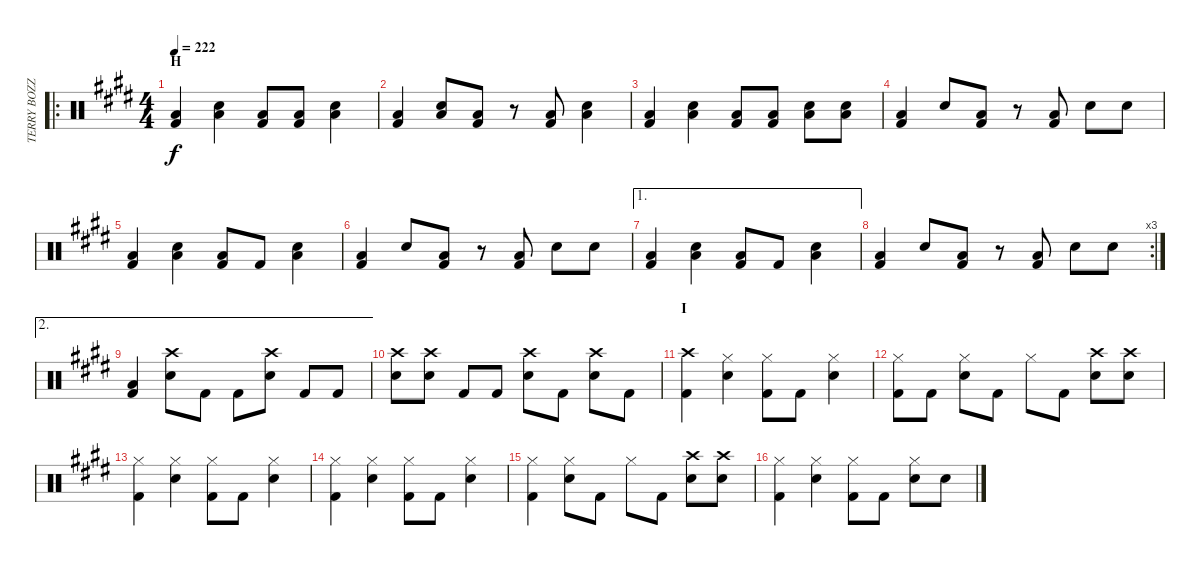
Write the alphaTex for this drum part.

\track ("TERRY BOZZIO" "TERRY BOZZ") {instrument percussion}
\staff {score}
\articulation defaults
\ro
\ts (4 4)
\section ("" "H")
\tempo 222
\clef neutral
\ks c#minor
("Kick (hit) 2" "Low Tom (hit)").4{dy f} ("Snare (hit) 2" "Low Tom (hit)").4 ("Kick (hit) 2" "Low Tom (hit)").8 ("Kick (hit) 2" "Low Tom (hit)").8 ("Snare (hit) 2" "Low Tom (hit)").4 |
("Kick (hit) 2" "Low Tom (hit)").4 ("Snare (hit) 2" "Low Tom (hit)").8 ("Kick (hit) 2" "Low Tom (hit)").8 r.8 ("Kick (hit) 2" "Low Tom (hit)").8 ("Snare (hit) 2" "Low Tom (hit)").4 |
("Kick (hit) 2" "Low Tom (hit)").4 ("Snare (hit) 2" "Low Tom (hit)").4 ("Kick (hit) 2" "Low Tom (hit)").8 ("Kick (hit) 2" "Low Tom (hit)").8 ("Snare (hit) 2" "Low Tom (hit)").8 ("Snare (hit) 2" "Low Tom (hit)").8 |
("Low Tom (hit)" "Kick (hit) 2").4 "Snare (hit) 2".8 ("Low Tom (hit)" "Kick (hit) 2").8 r.8 ("Low Tom (hit)" "Kick (hit) 2").8 "Snare (hit) 2".8 "Snare (hit) 2".8 |
("Low Tom (hit)" "Kick (hit) 2").4 ("Low Tom (hit)" "Snare (hit) 2").4 ("Low Tom (hit)" "Kick (hit) 2").8 "Kick (hit) 2".8 ("Low Tom (hit)" "Snare (hit) 2").4 |
("Kick (hit) 2" "Low Tom (hit)").4 "Snare (hit) 2".8 ("Low Tom (hit)" "Kick (hit) 2").8 r.8 ("Kick (hit) 2" "Low Tom (hit)").8 "Snare (hit) 2".8 "Snare (hit) 2".8 |
\ae 1
("Low Tom (hit)" "Kick (hit) 2").4 ("Low Tom (hit)" "Snare (hit) 2").4 ("Low Tom (hit)" "Kick (hit) 2").8 "Kick (hit) 2".8 ("Low Tom (hit)" "Snare (hit) 2").4 |
\rc 3
("Kick (hit) 2" "Low Tom (hit)").4 "Snare (hit) 2".8 ("Low Tom (hit)" "Kick (hit) 2").8 r.8 ("Kick (hit) 2" "Low Tom (hit)").8 "Snare (hit) 2".8 "Snare (hit) 2".8 |
\ae 2
("Low Tom (hit)" "Kick (hit) 2").4 ("Crash high (hit)" "Snare (hit) 2").8 "Kick (hit) 2".8 "Kick (hit) 2".8 ("Snare (hit) 2" "Crash high (hit)").8 "Kick (hit) 2".8 "Kick (hit) 2".8 |
("Crash high (hit)" "Snare (hit) 2").8 ("Crash high (hit)" "Snare (hit) 2").8 "Kick (hit) 2".8 "Kick (hit) 2".8 ("Crash high (hit)" "Snare (hit) 2").8 "Kick (hit) 2".8 ("Crash high (hit)" "Snare (hit) 2").8 "Kick (hit) 2".8 |
\section ("" "I")
("Crash high (hit)" "Kick (hit) 2").4 ("Hi-Hat (closed)" "Snare (hit) 2").4 ("Hi-Hat (closed)" "Kick (hit) 2").8 "Kick (hit) 2".8 ("Hi-Hat (closed)" "Snare (hit) 2").4 |
("Hi-Hat (closed)" "Kick (hit) 2").8 "Kick (hit) 2".8 ("Hi-Hat (closed)" "Snare (hit) 2").8 "Kick (hit) 2".8 "Hi-Hat (closed)".8 "Kick (hit) 2".8 ("Crash high (hit)" "Snare (hit) 2").8 ("Crash high (hit)" "Snare (hit) 2").8 |
("Hi-Hat (closed)" "Kick (hit) 2").4 ("Hi-Hat (closed)" "Snare (hit) 2").4 ("Hi-Hat (closed)" "Kick (hit) 2").8 "Kick (hit) 2".8 ("Hi-Hat (closed)" "Snare (hit) 2").4 |
("Hi-Hat (closed)" "Kick (hit) 2").4 ("Hi-Hat (closed)" "Snare (hit) 2").4 ("Hi-Hat (closed)" "Kick (hit) 2").8 "Kick (hit) 2".8 ("Hi-Hat (closed)" "Snare (hit) 2").4 |
("Hi-Hat (closed)" "Kick (hit) 2").4 ("Hi-Hat (closed)" "Snare (hit) 2").8 "Kick (hit) 2".8 "Hi-Hat (closed)".8 "Kick (hit) 2".8 ("Crash high (hit)" "Snare (hit) 2").8 ("Crash high (hit)" "Snare (hit) 2").8 |
("Hi-Hat (closed)" "Kick (hit) 2").4 ("Hi-Hat (closed)" "Snare (hit) 2").4 ("Hi-Hat (closed)" "Kick (hit) 2").8 "Kick (hit) 2".8 ("Hi-Hat (closed)" "Snare (hit) 2").8 "Snare (hit) 2".8
